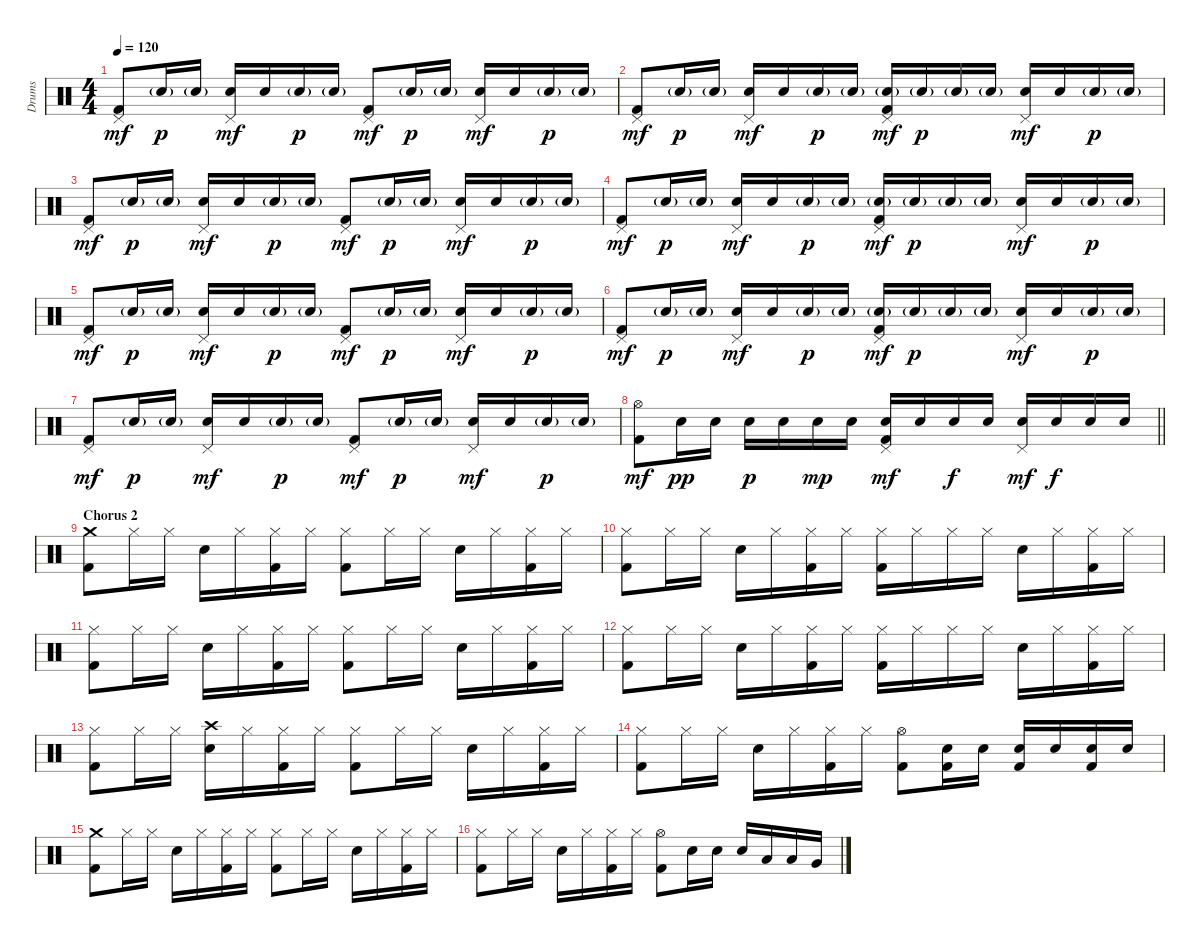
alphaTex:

\track ("Drums" "Drums") {instrument percussion}
\staff {score}
\articulation defaults
\ts (4 4)
\tempo 120
\clef neutral
\ks c
("Pedal Hi-Hat (hit)" "Kick (hit) 2").8{dy mf} "Electric Snare (hit)"{g}.16{dy p} "Electric Snare (hit)"{g}.16 ("Pedal Hi-Hat (hit)" "Electric Snare (hit)").16{dy mf} "Electric Snare (hit)".16 "Electric Snare (hit)"{g}.16{dy p} "Electric Snare (hit)"{g}.16 ("Pedal Hi-Hat (hit)" "Kick (hit) 2").8{dy mf} "Electric Snare (hit)"{g}.16{dy p} "Electric Snare (hit)"{g}.16 ("Pedal Hi-Hat (hit)" "Electric Snare (hit)").16{dy mf} "Electric Snare (hit)".16 "Electric Snare (hit)"{g}.16{dy p} "Electric Snare (hit)"{g}.16 |
("Pedal Hi-Hat (hit)" "Kick (hit) 2").8{dy mf} "Electric Snare (hit)"{g}.16{dy p} "Electric Snare (hit)"{g}.16 ("Pedal Hi-Hat (hit)" "Electric Snare (hit)").16{dy mf} "Electric Snare (hit)".16 "Electric Snare (hit)"{g}.16{dy p} "Electric Snare (hit)"{g}.16 ("Pedal Hi-Hat (hit)" "Electric Snare (hit)"{g} "Kick (hit) 2").16{dy mf} "Electric Snare (hit)"{g}.16{dy p} "Electric Snare (hit)"{g}.16 "Electric Snare (hit)"{g}.16 ("Pedal Hi-Hat (hit)" "Electric Snare (hit)").16{dy mf} "Electric Snare (hit)".16 "Electric Snare (hit)"{g}.16{dy p} "Electric Snare (hit)"{g}.16 |
("Pedal Hi-Hat (hit)" "Kick (hit) 2").8{dy mf} "Electric Snare (hit)"{g}.16{dy p} "Electric Snare (hit)"{g}.16 ("Pedal Hi-Hat (hit)" "Electric Snare (hit)").16{dy mf} "Electric Snare (hit)".16 "Electric Snare (hit)"{g}.16{dy p} "Electric Snare (hit)"{g}.16 ("Pedal Hi-Hat (hit)" "Kick (hit) 2").8{dy mf} "Electric Snare (hit)"{g}.16{dy p} "Electric Snare (hit)"{g}.16 ("Pedal Hi-Hat (hit)" "Electric Snare (hit)").16{dy mf} "Electric Snare (hit)".16 "Electric Snare (hit)"{g}.16{dy p} "Electric Snare (hit)"{g}.16 |
("Pedal Hi-Hat (hit)" "Kick (hit) 2").8{dy mf} "Electric Snare (hit)"{g}.16{dy p} "Electric Snare (hit)"{g}.16 ("Pedal Hi-Hat (hit)" "Electric Snare (hit)").16{dy mf} "Electric Snare (hit)".16 "Electric Snare (hit)"{g}.16{dy p} "Electric Snare (hit)"{g}.16 ("Pedal Hi-Hat (hit)" "Electric Snare (hit)"{g} "Kick (hit) 2").16{dy mf} "Electric Snare (hit)"{g}.16{dy p} "Electric Snare (hit)"{g}.16 "Electric Snare (hit)"{g}.16 ("Pedal Hi-Hat (hit)" "Electric Snare (hit)").16{dy mf} "Electric Snare (hit)".16 "Electric Snare (hit)"{g}.16{dy p} "Electric Snare (hit)"{g}.16 |
("Pedal Hi-Hat (hit)" "Kick (hit) 2").8{dy mf} "Electric Snare (hit)"{g}.16{dy p} "Electric Snare (hit)"{g}.16 ("Pedal Hi-Hat (hit)" "Electric Snare (hit)").16{dy mf} "Electric Snare (hit)".16 "Electric Snare (hit)"{g}.16{dy p} "Electric Snare (hit)"{g}.16 ("Pedal Hi-Hat (hit)" "Kick (hit) 2").8{dy mf} "Electric Snare (hit)"{g}.16{dy p} "Electric Snare (hit)"{g}.16 ("Pedal Hi-Hat (hit)" "Electric Snare (hit)").16{dy mf} "Electric Snare (hit)".16 "Electric Snare (hit)"{g}.16{dy p} "Electric Snare (hit)"{g}.16 |
("Pedal Hi-Hat (hit)" "Kick (hit) 2").8{dy mf} "Electric Snare (hit)"{g}.16{dy p} "Electric Snare (hit)"{g}.16 ("Pedal Hi-Hat (hit)" "Electric Snare (hit)").16{dy mf} "Electric Snare (hit)".16 "Electric Snare (hit)"{g}.16{dy p} "Electric Snare (hit)"{g}.16 ("Pedal Hi-Hat (hit)" "Electric Snare (hit)"{g} "Kick (hit) 2").16{dy mf} "Electric Snare (hit)"{g}.16{dy p} "Electric Snare (hit)"{g}.16 "Electric Snare (hit)"{g}.16 ("Pedal Hi-Hat (hit)" "Electric Snare (hit)").16{dy mf} "Electric Snare (hit)".16 "Electric Snare (hit)"{g}.16{dy p} "Electric Snare (hit)"{g}.16 |
("Pedal Hi-Hat (hit)" "Kick (hit) 2").8{dy mf} "Electric Snare (hit)"{g}.16{dy p} "Electric Snare (hit)"{g}.16 ("Pedal Hi-Hat (hit)" "Electric Snare (hit)").16{dy mf} "Electric Snare (hit)".16 "Electric Snare (hit)"{g}.16{dy p} "Electric Snare (hit)"{g}.16 ("Pedal Hi-Hat (hit)" "Kick (hit) 2").8{dy mf} "Electric Snare (hit)"{g}.16{dy p} "Electric Snare (hit)"{g}.16 ("Pedal Hi-Hat (hit)" "Electric Snare (hit)").16{dy mf} "Electric Snare (hit)".16 "Electric Snare (hit)"{g}.16{dy p} "Electric Snare (hit)"{g}.16 |
\barLineRight lightlight
("Hi-Hat (open)" "Kick (hit) 2").8{dy mf} "Electric Snare (hit)".16{dy pp} "Electric Snare (hit)".16 "Electric Snare (hit)".16{dy p} "Electric Snare (hit)".16 "Electric Snare (hit)".16{dy mp} "Electric Snare (hit)".16 ("Pedal Hi-Hat (hit)" "Electric Snare (hit)" "Kick (hit) 2").16{dy mf} "Electric Snare (hit)".16 "Electric Snare (hit)".16{dy f} "Electric Snare (hit)".16 ("Pedal Hi-Hat (hit)" "Electric Snare (hit)").16{dy mf} "Electric Snare (hit)".16{dy f} "Electric Snare (hit)".16 "Electric Snare (hit)".16 |
\section ("" "Chorus 2")
("Crash medium (hit)" "Kick (hit) 2").8 "Hi-Hat (closed)".16 "Hi-Hat (closed)".16 "Electric Snare (hit)".16 "Hi-Hat (closed)".16 ("Hi-Hat (closed)" "Kick (hit) 2").16 "Hi-Hat (closed)".16 ("Hi-Hat (closed)" "Kick (hit) 2").8 "Hi-Hat (closed)".16 "Hi-Hat (closed)".16 "Electric Snare (hit)".16 "Hi-Hat (closed)".16 ("Hi-Hat (closed)" "Kick (hit) 2").16 "Hi-Hat (closed)".16 |
("Hi-Hat (closed)" "Kick (hit) 2").8 "Hi-Hat (closed)".16 "Hi-Hat (closed)".16 "Electric Snare (hit)".16 "Hi-Hat (closed)".16 ("Hi-Hat (closed)" "Kick (hit) 2").16 "Hi-Hat (closed)".16 ("Hi-Hat (closed)" "Kick (hit) 2").16 "Hi-Hat (closed)".16 "Hi-Hat (closed)".16 "Hi-Hat (closed)".16 "Electric Snare (hit)".16 "Hi-Hat (closed)".16 ("Hi-Hat (closed)" "Kick (hit) 2").16 "Hi-Hat (closed)".16 |
("Hi-Hat (closed)" "Kick (hit) 2").8 "Hi-Hat (closed)".16 "Hi-Hat (closed)".16 "Electric Snare (hit)".16 "Hi-Hat (closed)".16 ("Hi-Hat (closed)" "Kick (hit) 2").16 "Hi-Hat (closed)".16 ("Hi-Hat (closed)" "Kick (hit) 2").8 "Hi-Hat (closed)".16 "Hi-Hat (closed)".16 "Electric Snare (hit)".16 "Hi-Hat (closed)".16 ("Hi-Hat (closed)" "Kick (hit) 2").16 "Hi-Hat (closed)".16 |
("Hi-Hat (closed)" "Kick (hit) 2").8 "Hi-Hat (closed)".16 "Hi-Hat (closed)".16 "Electric Snare (hit)".16 "Hi-Hat (closed)".16 ("Hi-Hat (closed)" "Kick (hit) 2").16 "Hi-Hat (closed)".16 ("Hi-Hat (closed)" "Kick (hit) 2").16 "Hi-Hat (closed)".16 "Hi-Hat (closed)".16 "Hi-Hat (closed)".16 "Electric Snare (hit)".16 "Hi-Hat (closed)".16 ("Hi-Hat (closed)" "Kick (hit) 2").16 "Hi-Hat (closed)".16 |
("Hi-Hat (closed)" "Kick (hit) 2").8 "Hi-Hat (closed)".16 "Hi-Hat (closed)".16 ("Crash high (hit)" "Electric Snare (hit)").16 "Hi-Hat (closed)".16 ("Hi-Hat (closed)" "Kick (hit) 2").16 "Hi-Hat (closed)".16 ("Hi-Hat (closed)" "Kick (hit) 2").8 "Hi-Hat (closed)".16 "Hi-Hat (closed)".16 "Electric Snare (hit)".16 "Hi-Hat (closed)".16 ("Hi-Hat (closed)" "Kick (hit) 2").16 "Hi-Hat (closed)".16 |
("Hi-Hat (closed)" "Kick (hit) 2").8 "Hi-Hat (closed)".16 "Hi-Hat (closed)".16 "Electric Snare (hit)".16 "Hi-Hat (closed)".16 ("Hi-Hat (closed)" "Kick (hit) 2").16 "Hi-Hat (closed)".16 ("Hi-Hat (open)" "Kick (hit) 2").8 ("Electric Snare (hit)" "Kick (hit) 2").16 "Electric Snare (hit)".16 ("Electric Snare (hit)" "Kick (hit) 2").16 "Electric Snare (hit)".16 ("Electric Snare (hit)" "Kick (hit) 2").16 "Electric Snare (hit)".16 |
("Crash medium (hit)" "Kick (hit) 2").8 "Hi-Hat (closed)".16 "Hi-Hat (closed)".16 "Electric Snare (hit)".16 "Hi-Hat (closed)".16 ("Hi-Hat (closed)" "Kick (hit) 2").16 "Hi-Hat (closed)".16 ("Hi-Hat (closed)" "Kick (hit) 2").8 "Hi-Hat (closed)".16 "Hi-Hat (closed)".16 "Electric Snare (hit)".16 "Hi-Hat (closed)".16 ("Hi-Hat (closed)" "Kick (hit) 2").16 "Hi-Hat (closed)".16 |
("Hi-Hat (closed)" "Kick (hit) 2").8 "Hi-Hat (closed)".16 "Hi-Hat (closed)".16 "Electric Snare (hit)".16 "Hi-Hat (closed)".16 ("Hi-Hat (closed)" "Kick (hit) 2").16 "Hi-Hat (closed)".16 ("Hi-Hat (open)" "Kick (hit) 2").8 "Electric Snare (hit)".16 "Electric Snare (hit)".16 "Electric Snare (hit)".16 "Low Tom (hit)".16 "Low Tom (hit)".16 "Very Low Tom (hit)".16
